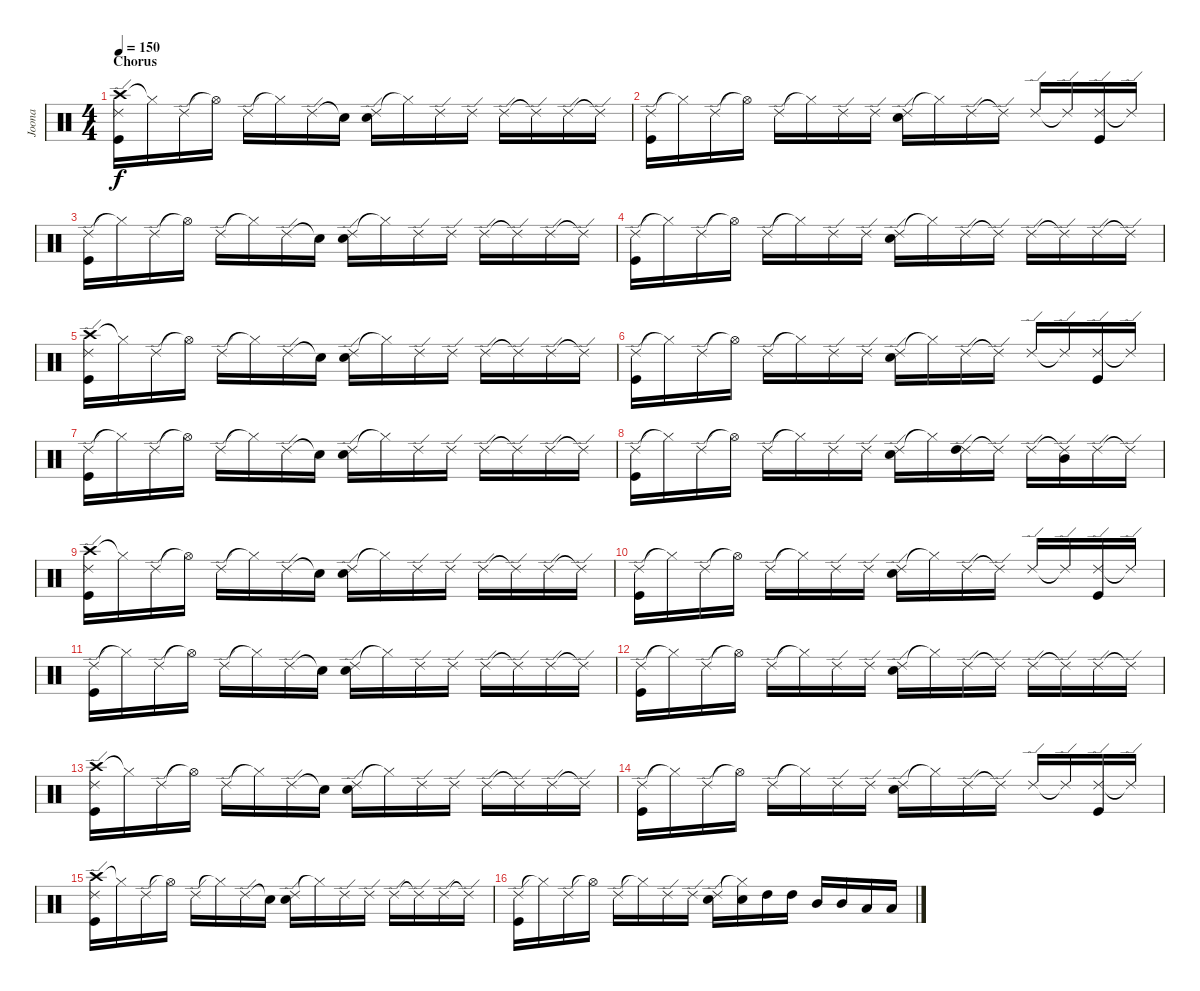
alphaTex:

\track ("Joona" "Joona") {instrument percussion}
\staff {score}
\articulation defaults
\ts (4 4)
\section ("" "Chorus")
\tempo 150
\clef neutral
\ks c
("Crash high (hit)" "Ride (edge) 2" "Kick (hit)").16{dy f} "Hi-Hat (closed)"{t}.16 "Ride (edge) 2".16 "Hi-Hat (open)"{t}.16 "Ride (edge) 2".16 "Hi-Hat (closed)"{t}.16 "Ride (edge) 2".16 "Snare (hit)"{t}.16 ("Ride (edge) 2" "Snare (hit) 2").16 "Hi-Hat (closed)"{t}.16 "Ride (edge) 2".16 "Ride (edge) 2".16 "Ride (edge) 2".16 "Ride (edge) 2"{t}.16 "Ride (edge) 2".16 "Ride (edge) 2"{t}.16 |
("Ride (edge) 2" "Kick (hit)").16 "Hi-Hat (closed)"{t}.16 "Ride (edge) 2".16 "Hi-Hat (open)"{t}.16 "Ride (edge) 2".16 "Hi-Hat (closed)"{t}.16 "Ride (edge) 2".16 "Ride (edge) 2".16 ("Ride (edge) 2" "Snare (hit) 2").16 "Hi-Hat (closed)"{t}.16 "Ride (edge) 2".16 "Ride (edge) 2"{t}.16 "Ride (edge) 2".16 "Ride (edge) 2"{t}.16 ("Ride (edge) 2" "Kick (hit)").16 "Ride (edge) 2"{t}.16 |
("Ride (edge) 2" "Kick (hit)").16 "Hi-Hat (closed)"{t}.16 "Ride (edge) 2".16 "Hi-Hat (open)"{t}.16 "Ride (edge) 2".16 "Hi-Hat (closed)"{t}.16 "Ride (edge) 2".16 "Snare (hit)"{t}.16 ("Ride (edge) 2" "Snare (hit) 2").16 "Hi-Hat (closed)"{t}.16 "Ride (edge) 2".16 "Ride (edge) 2".16 "Ride (edge) 2".16 "Ride (edge) 2"{t}.16 "Ride (edge) 2".16 "Ride (edge) 2"{t}.16 |
("Ride (edge) 2" "Kick (hit)").16 "Hi-Hat (closed)"{t}.16 "Ride (edge) 2".16 "Hi-Hat (open)"{t}.16 "Ride (edge) 2".16 "Hi-Hat (closed)"{t}.16 "Ride (edge) 2".16 "Ride (edge) 2".16 ("Ride (edge) 2" "Snare (hit) 2").16 "Hi-Hat (closed)"{t}.16 "Ride (edge) 2".16 "Ride (edge) 2"{t}.16 "Ride (edge) 2".16 "Ride (edge) 2"{t}.16 "Ride (edge) 2".16 "Ride (edge) 2"{t}.16 |
("Crash high (hit)" "Ride (edge) 2" "Kick (hit)").16 "Hi-Hat (closed)"{t}.16 "Ride (edge) 2".16 "Hi-Hat (open)"{t}.16 "Ride (edge) 2".16 "Hi-Hat (closed)"{t}.16 "Ride (edge) 2".16 "Snare (hit)"{t}.16 ("Ride (edge) 2" "Snare (hit) 2").16 "Hi-Hat (closed)"{t}.16 "Ride (edge) 2".16 "Ride (edge) 2".16 "Ride (edge) 2".16 "Ride (edge) 2"{t}.16 "Ride (edge) 2".16 "Ride (edge) 2"{t}.16 |
("Ride (edge) 2" "Kick (hit)").16 "Hi-Hat (closed)"{t}.16 "Ride (edge) 2".16 "Hi-Hat (open)"{t}.16 "Ride (edge) 2".16 "Hi-Hat (closed)"{t}.16 "Ride (edge) 2".16 "Ride (edge) 2".16 ("Ride (edge) 2" "Snare (hit) 2").16 "Hi-Hat (closed)"{t}.16 "Ride (edge) 2".16 "Ride (edge) 2"{t}.16 "Ride (edge) 2".16 "Ride (edge) 2"{t}.16 ("Ride (edge) 2" "Kick (hit)").16 "Ride (edge) 2"{t}.16 |
("Ride (edge) 2" "Kick (hit)").16 "Hi-Hat (closed)"{t}.16 "Ride (edge) 2".16 "Hi-Hat (open)"{t}.16 "Ride (edge) 2".16 "Hi-Hat (closed)"{t}.16 "Ride (edge) 2".16 "Snare (hit)"{t}.16 ("Ride (edge) 2" "Snare (hit) 2").16 "Hi-Hat (closed)"{t}.16 "Ride (edge) 2".16 "Ride (edge) 2".16 "Ride (edge) 2".16 "Ride (edge) 2"{t}.16 "Ride (edge) 2".16 "Ride (edge) 2"{t}.16 |
("Ride (edge) 2" "Kick (hit)").16 "Hi-Hat (closed)"{t}.16 "Ride (edge) 2".16 "Hi-Hat (open)"{t}.16 "Ride (edge) 2".16 "Hi-Hat (closed)"{t}.16 "Ride (edge) 2".16 "Ride (edge) 2".16 ("Ride (edge) 2" "Snare (hit) 2").16 "Hi-Hat (closed)"{t}.16 ("Ride (edge) 2" "High Tom (hit)").16 "Ride (edge) 2"{t}.16 "Ride (edge) 2".16 ("Ride (edge) 2"{t} "Mid Tom (hit)").16 "Ride (edge) 2".16 "Ride (edge) 2"{t}.16 |
("Crash high (hit)" "Ride (edge) 2" "Kick (hit)").16 "Hi-Hat (closed)"{t}.16 "Ride (edge) 2".16 "Hi-Hat (open)"{t}.16 "Ride (edge) 2".16 "Hi-Hat (closed)"{t}.16 "Ride (edge) 2".16 "Snare (hit)"{t}.16 ("Ride (edge) 2" "Snare (hit) 2").16 "Hi-Hat (closed)"{t}.16 "Ride (edge) 2".16 "Ride (edge) 2".16 "Ride (edge) 2".16 "Ride (edge) 2"{t}.16 "Ride (edge) 2".16 "Ride (edge) 2"{t}.16 |
("Ride (edge) 2" "Kick (hit)").16 "Hi-Hat (closed)"{t}.16 "Ride (edge) 2".16 "Hi-Hat (open)"{t}.16 "Ride (edge) 2".16 "Hi-Hat (closed)"{t}.16 "Ride (edge) 2".16 "Ride (edge) 2".16 ("Ride (edge) 2" "Snare (hit) 2").16 "Hi-Hat (closed)"{t}.16 "Ride (edge) 2".16 "Ride (edge) 2"{t}.16 "Ride (edge) 2".16 "Ride (edge) 2"{t}.16 ("Ride (edge) 2" "Kick (hit)").16 "Ride (edge) 2"{t}.16 |
("Ride (edge) 2" "Kick (hit)").16 "Hi-Hat (closed)"{t}.16 "Ride (edge) 2".16 "Hi-Hat (open)"{t}.16 "Ride (edge) 2".16 "Hi-Hat (closed)"{t}.16 "Ride (edge) 2".16 "Snare (hit)"{t}.16 ("Ride (edge) 2" "Snare (hit) 2").16 "Hi-Hat (closed)"{t}.16 "Ride (edge) 2".16 "Ride (edge) 2".16 "Ride (edge) 2".16 "Ride (edge) 2"{t}.16 "Ride (edge) 2".16 "Ride (edge) 2"{t}.16 |
("Ride (edge) 2" "Kick (hit)").16 "Hi-Hat (closed)"{t}.16 "Ride (edge) 2".16 "Hi-Hat (open)"{t}.16 "Ride (edge) 2".16 "Hi-Hat (closed)"{t}.16 "Ride (edge) 2".16 "Ride (edge) 2".16 ("Ride (edge) 2" "Snare (hit) 2").16 "Hi-Hat (closed)"{t}.16 "Ride (edge) 2".16 "Ride (edge) 2"{t}.16 "Ride (edge) 2".16 "Ride (edge) 2"{t}.16 "Ride (edge) 2".16 "Ride (edge) 2"{t}.16 |
("Crash high (hit)" "Ride (edge) 2" "Kick (hit)").16 "Hi-Hat (closed)"{t}.16 "Ride (edge) 2".16 "Hi-Hat (open)"{t}.16 "Ride (edge) 2".16 "Hi-Hat (closed)"{t}.16 "Ride (edge) 2".16 "Snare (hit)"{t}.16 ("Ride (edge) 2" "Snare (hit) 2").16 "Hi-Hat (closed)"{t}.16 "Ride (edge) 2".16 "Ride (edge) 2".16 "Ride (edge) 2".16 "Ride (edge) 2"{t}.16 "Ride (edge) 2".16 "Ride (edge) 2"{t}.16 |
("Ride (edge) 2" "Kick (hit)").16 "Hi-Hat (closed)"{t}.16 "Ride (edge) 2".16 "Hi-Hat (open)"{t}.16 "Ride (edge) 2".16 "Hi-Hat (closed)"{t}.16 "Ride (edge) 2".16 "Ride (edge) 2".16 ("Ride (edge) 2" "Snare (hit) 2").16 "Hi-Hat (closed)"{t}.16 "Ride (edge) 2".16 "Ride (edge) 2"{t}.16 "Ride (edge) 2".16 "Ride (edge) 2"{t}.16 ("Ride (edge) 2" "Kick (hit)").16 "Ride (edge) 2"{t}.16 |
("Crash high (hit)" "Ride (edge) 2" "Kick (hit)").16 "Hi-Hat (closed)"{t}.16 "Ride (edge) 2".16 "Hi-Hat (open)"{t}.16 "Ride (edge) 2".16 "Hi-Hat (closed)"{t}.16 "Ride (edge) 2".16 "Snare (hit)"{t}.16 ("Ride (edge) 2" "Snare (hit) 2").16 "Hi-Hat (closed)"{t}.16 "Ride (edge) 2".16 "Ride (edge) 2".16 "Ride (edge) 2".16 "Ride (edge) 2"{t}.16 "Ride (edge) 2".16 "Ride (edge) 2"{t}.16 |
("Ride (edge) 2" "Kick (hit)").16 "Hi-Hat (closed)"{t}.16 "Ride (edge) 2".16 "Hi-Hat (open)"{t}.16 "Ride (edge) 2".16 "Hi-Hat (closed)"{t}.16 "Ride (edge) 2".16 "Ride (edge) 2".16 ("Ride (edge) 2" "Snare (hit) 2").16 ("Hi-Hat (closed)"{t} "Snare (hit) 2").16 "High Tom (hit)".16 "High Tom (hit)".16 "Mid Tom (hit)".16 "Mid Tom (hit)".16 "Low Tom (hit)".16 "Low Tom (hit)".16
